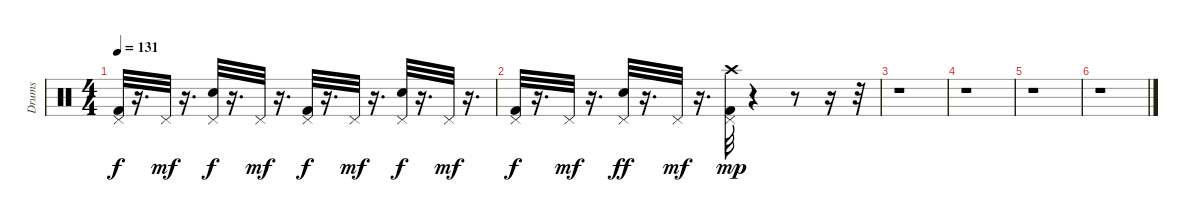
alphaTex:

\track ("Drums" "Drums") {instrument percussion}
\staff {score}
\articulation defaults
\ts (4 4)
\tempo 131
\clef neutral
\ks c
("Pedal Hi-Hat (hit)" "Kick (hit) 2").32{dy f} r.16{d} "Pedal Hi-Hat (hit)".32{dy mf} r.16{d} ("Pedal Hi-Hat (hit)" "Snare (hit) 2").32{dy f} r.16{d} "Pedal Hi-Hat (hit)".32{dy mf} r.16{d} ("Pedal Hi-Hat (hit)" "Kick (hit) 2").32{dy f} r.16{d} "Pedal Hi-Hat (hit)".32{dy mf} r.16{d} ("Snare (hit) 2" "Pedal Hi-Hat (hit)").32{dy f} r.16{d} "Pedal Hi-Hat (hit)".32{dy mf} r.16{d} |
("Pedal Hi-Hat (hit)" "Kick (hit) 2").32{dy f} r.16{d} "Pedal Hi-Hat (hit)".32{dy mf} r.16{d} ("Snare (hit) 2" "Pedal Hi-Hat (hit)").32{dy ff} r.16{d} "Pedal Hi-Hat (hit)".32{dy mf} r.16{d} ("Kick (hit) 2" "Pedal Hi-Hat (hit)" "Crash high (hit)").32{dy mp} r.4 r.8 r.16 r.32 |
r.1 |
r.1 |
r.1 |
r.1
